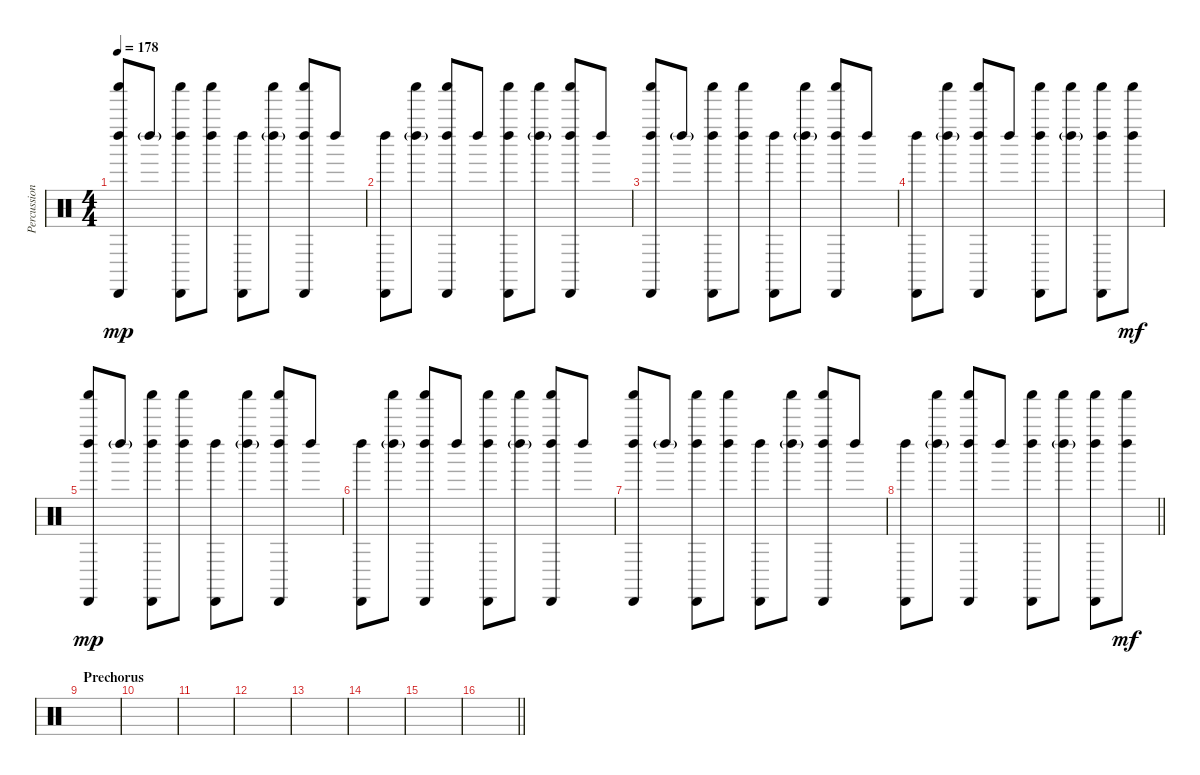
\track ("Percussion" "Percussion") {instrument percussion}
\staff {score}
\articulation defaults
\ts (4 4)
\tempo 178
\clef neutral
\ks c
("Left Maraca (hit)" "Shaker (hit)" "Cabasa (hit)").8{dy mp} "Left Maraca (hit)"{g}.8 ("Left Maraca (hit)" "Shaker (hit)" "Cabasa (hit)").8 ("Left Maraca (hit)" "Shaker (hit)").8 ("Left Maraca (hit)" "Cabasa (hit)").8 ("Left Maraca (hit)"{g} "Shaker (hit)").8 ("Left Maraca (hit)" "Shaker (hit)" "Cabasa (hit)").8 "Left Maraca (hit)".8 |
("Left Maraca (hit)" "Cabasa (hit)").8 ("Left Maraca (hit)"{g} "Shaker (hit)").8 ("Left Maraca (hit)" "Shaker (hit)" "Cabasa (hit)").8 "Left Maraca (hit)".8 ("Left Maraca (hit)" "Shaker (hit)" "Cabasa (hit)").8 ("Left Maraca (hit)"{g} "Shaker (hit)").8 ("Left Maraca (hit)" "Shaker (hit)" "Cabasa (hit)").8 "Left Maraca (hit)".8 |
("Left Maraca (hit)" "Shaker (hit)" "Cabasa (hit)").8 "Left Maraca (hit)"{g}.8 ("Left Maraca (hit)" "Shaker (hit)" "Cabasa (hit)").8 ("Left Maraca (hit)" "Shaker (hit)").8 ("Left Maraca (hit)" "Cabasa (hit)").8 ("Left Maraca (hit)"{g} "Shaker (hit)").8 ("Left Maraca (hit)" "Shaker (hit)" "Cabasa (hit)").8 "Left Maraca (hit)".8 |
("Left Maraca (hit)" "Cabasa (hit)").8 ("Left Maraca (hit)"{g} "Shaker (hit)").8 ("Left Maraca (hit)" "Shaker (hit)" "Cabasa (hit)").8 "Left Maraca (hit)".8 ("Left Maraca (hit)" "Shaker (hit)" "Cabasa (hit)").8 ("Left Maraca (hit)"{g} "Shaker (hit)").8 ("Left Maraca (hit)" "Shaker (hit)" "Cabasa (hit)").8 ("Left Maraca (hit)" "Shaker (hit)").8{dy mf} |
("Left Maraca (hit)" "Shaker (hit)" "Cabasa (hit)").8{dy mp} "Left Maraca (hit)"{g}.8 ("Left Maraca (hit)" "Shaker (hit)" "Cabasa (hit)").8 ("Left Maraca (hit)" "Shaker (hit)").8 ("Left Maraca (hit)" "Cabasa (hit)").8 ("Left Maraca (hit)"{g} "Shaker (hit)").8 ("Left Maraca (hit)" "Shaker (hit)" "Cabasa (hit)").8 "Left Maraca (hit)".8 |
("Left Maraca (hit)" "Cabasa (hit)").8 ("Left Maraca (hit)"{g} "Shaker (hit)").8 ("Left Maraca (hit)" "Shaker (hit)" "Cabasa (hit)").8 "Left Maraca (hit)".8 ("Left Maraca (hit)" "Shaker (hit)" "Cabasa (hit)").8 ("Left Maraca (hit)"{g} "Shaker (hit)").8 ("Left Maraca (hit)" "Shaker (hit)" "Cabasa (hit)").8 "Left Maraca (hit)".8 |
("Left Maraca (hit)" "Shaker (hit)" "Cabasa (hit)").8 "Left Maraca (hit)"{g}.8 ("Left Maraca (hit)" "Shaker (hit)" "Cabasa (hit)").8 ("Left Maraca (hit)" "Shaker (hit)").8 ("Left Maraca (hit)" "Cabasa (hit)").8 ("Left Maraca (hit)"{g} "Shaker (hit)").8 ("Left Maraca (hit)" "Shaker (hit)" "Cabasa (hit)").8 "Left Maraca (hit)".8 |
\barLineRight lightlight
("Left Maraca (hit)" "Cabasa (hit)").8 ("Left Maraca (hit)"{g} "Shaker (hit)").8 ("Left Maraca (hit)" "Shaker (hit)" "Cabasa (hit)").8 "Left Maraca (hit)".8 ("Left Maraca (hit)" "Shaker (hit)" "Cabasa (hit)").8 ("Left Maraca (hit)"{g} "Shaker (hit)").8 ("Left Maraca (hit)" "Shaker (hit)" "Cabasa (hit)").8 ("Left Maraca (hit)" "Shaker (hit)").8{dy mf} |
\section ("" "Prechorus")
|
|
|
|
|
|
|
\barLineRight lightlight
